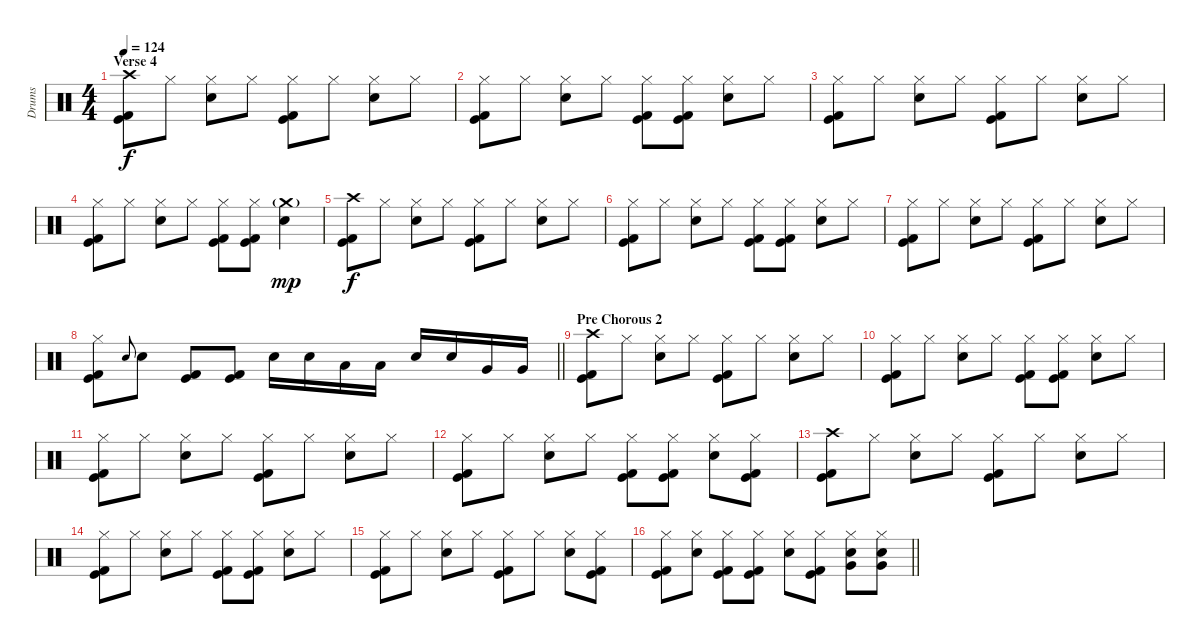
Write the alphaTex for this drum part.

\track ("Drums" "Drums") {instrument percussion}
\staff {score}
\articulation defaults
\ts (4 4)
\section ("" "Verse 4")
\tempo 124
\clef neutral
\ks c
("Crash high (hit)" "Kick (hit)" "Kick (hit) 2").8{dy f} "Hi-Hat (closed)".8 ("Hi-Hat (closed)" "Electric Snare (hit)").8 "Hi-Hat (closed)".8 ("Hi-Hat (closed)" "Kick (hit)" "Kick (hit) 2").8 "Hi-Hat (closed)".8 ("Hi-Hat (closed)" "Electric Snare (hit)").8 "Hi-Hat (closed)".8 |
("Hi-Hat (closed)" "Kick (hit)" "Kick (hit) 2").8 "Hi-Hat (closed)".8 ("Hi-Hat (closed)" "Electric Snare (hit)").8 "Hi-Hat (closed)".8 ("Hi-Hat (closed)" "Kick (hit)" "Kick (hit) 2").8 ("Hi-Hat (closed)" "Kick (hit)" "Kick (hit) 2").8 ("Hi-Hat (closed)" "Electric Snare (hit)").8 "Hi-Hat (closed)".8 |
("Hi-Hat (closed)" "Kick (hit)" "Kick (hit) 2").8 "Hi-Hat (closed)".8 ("Hi-Hat (closed)" "Electric Snare (hit)").8 "Hi-Hat (closed)".8 ("Hi-Hat (closed)" "Kick (hit)" "Kick (hit) 2").8 "Hi-Hat (closed)".8 ("Hi-Hat (closed)" "Electric Snare (hit)").8 "Hi-Hat (closed)".8 |
("Hi-Hat (closed)" "Kick (hit)" "Kick (hit) 2").8 "Hi-Hat (closed)".8 ("Hi-Hat (closed)" "Electric Snare (hit)").8 "Hi-Hat (closed)".8 ("Hi-Hat (closed)" "Kick (hit)" "Kick (hit) 2").8 ("Hi-Hat (closed)" "Kick (hit)" "Kick (hit) 2").8 ("Crash medium (hit)"{g} "Electric Snare (hit)").4{dy mp} |
("Crash high (hit)" "Kick (hit)" "Kick (hit) 2").8{dy f} "Hi-Hat (closed)".8 ("Hi-Hat (closed)" "Electric Snare (hit)").8 "Hi-Hat (closed)".8 ("Hi-Hat (closed)" "Kick (hit)" "Kick (hit) 2").8 "Hi-Hat (closed)".8 ("Hi-Hat (closed)" "Electric Snare (hit)").8 "Hi-Hat (closed)".8 |
("Hi-Hat (closed)" "Kick (hit)" "Kick (hit) 2").8 "Hi-Hat (closed)".8 ("Hi-Hat (closed)" "Electric Snare (hit)").8 "Hi-Hat (closed)".8 ("Hi-Hat (closed)" "Kick (hit)" "Kick (hit) 2").8 ("Hi-Hat (closed)" "Kick (hit)" "Kick (hit) 2").8 ("Hi-Hat (closed)" "Electric Snare (hit)").8 "Hi-Hat (closed)".8 |
("Hi-Hat (closed)" "Kick (hit)" "Kick (hit) 2").8 "Hi-Hat (closed)".8 ("Hi-Hat (closed)" "Electric Snare (hit)").8 "Hi-Hat (closed)".8 ("Hi-Hat (closed)" "Kick (hit)" "Kick (hit) 2").8 "Hi-Hat (closed)".8 ("Hi-Hat (closed)" "Electric Snare (hit)").8 "Hi-Hat (closed)".8 |
\barLineRight lightlight
("Hi-Hat (closed)" "Kick (hit)" "Kick (hit) 2").8 "Electric Snare (hit)".8{gr onbeat} "Electric Snare (hit)".8 ("Kick (hit)" "Kick (hit) 2").8 ("Kick (hit)" "Kick (hit) 2").8 "Electric Snare (hit)".16 "Electric Snare (hit)".16 "Low Tom (hit)".16 "Low Tom (hit)".16 "Electric Snare (hit)".16 "Electric Snare (hit)".16 "Very Low Tom (hit)".16 "Very Low Tom (hit)".16 |
\section ("" "Pre Chorous 2")
("Crash high (hit)" "Kick (hit)" "Kick (hit) 2").8 "Hi-Hat (closed)".8 ("Hi-Hat (closed)" "Electric Snare (hit)").8 "Hi-Hat (closed)".8 ("Hi-Hat (closed)" "Kick (hit)" "Kick (hit) 2").8 "Hi-Hat (closed)".8 ("Hi-Hat (closed)" "Electric Snare (hit)").8 "Hi-Hat (closed)".8 |
("Hi-Hat (closed)" "Kick (hit)" "Kick (hit) 2").8 "Hi-Hat (closed)".8 ("Hi-Hat (closed)" "Electric Snare (hit)").8 "Hi-Hat (closed)".8 ("Hi-Hat (closed)" "Kick (hit)" "Kick (hit) 2").8 ("Hi-Hat (closed)" "Kick (hit)" "Kick (hit) 2").8 ("Hi-Hat (closed)" "Electric Snare (hit)").8 "Hi-Hat (closed)".8 |
("Hi-Hat (closed)" "Kick (hit)" "Kick (hit) 2").8 "Hi-Hat (closed)".8 ("Hi-Hat (closed)" "Electric Snare (hit)").8 "Hi-Hat (closed)".8 ("Hi-Hat (closed)" "Kick (hit)" "Kick (hit) 2").8 "Hi-Hat (closed)".8 ("Hi-Hat (closed)" "Electric Snare (hit)").8 "Hi-Hat (closed)".8 |
("Hi-Hat (closed)" "Kick (hit)" "Kick (hit) 2").8 "Hi-Hat (closed)".8 ("Hi-Hat (closed)" "Electric Snare (hit)").8 "Hi-Hat (closed)".8 ("Hi-Hat (closed)" "Kick (hit)" "Kick (hit) 2").8 ("Hi-Hat (closed)" "Kick (hit)" "Kick (hit) 2").8 ("Hi-Hat (closed)" "Electric Snare (hit)").8 ("Hi-Hat (closed)" "Kick (hit)" "Kick (hit) 2").8 |
("Crash high (hit)" "Kick (hit)" "Kick (hit) 2").8 "Hi-Hat (closed)".8 ("Hi-Hat (closed)" "Electric Snare (hit)").8 "Hi-Hat (closed)".8 ("Hi-Hat (closed)" "Kick (hit)" "Kick (hit) 2").8 "Hi-Hat (closed)".8 ("Hi-Hat (closed)" "Electric Snare (hit)").8 "Hi-Hat (closed)".8 |
("Hi-Hat (closed)" "Kick (hit)" "Kick (hit) 2").8 "Hi-Hat (closed)".8 ("Hi-Hat (closed)" "Electric Snare (hit)").8 "Hi-Hat (closed)".8 ("Hi-Hat (closed)" "Kick (hit)" "Kick (hit) 2").8 ("Hi-Hat (closed)" "Kick (hit)" "Kick (hit) 2").8 ("Hi-Hat (closed)" "Electric Snare (hit)").8 "Hi-Hat (closed)".8 |
("Hi-Hat (closed)" "Kick (hit)" "Kick (hit) 2").8 "Hi-Hat (closed)".8 ("Hi-Hat (closed)" "Electric Snare (hit)").8 "Hi-Hat (closed)".8 ("Hi-Hat (closed)" "Kick (hit)" "Kick (hit) 2").8 "Hi-Hat (closed)".8 ("Hi-Hat (closed)" "Electric Snare (hit)").8 ("Hi-Hat (closed)" "Kick (hit)" "Kick (hit) 2").8 |
\barLineRight lightlight
("Hi-Hat (closed)" "Kick (hit)" "Kick (hit) 2").8 ("Hi-Hat (closed)" "Electric Snare (hit)").8 ("Hi-Hat (closed)" "Kick (hit)" "Kick (hit) 2").8 ("Hi-Hat (closed)" "Kick (hit)" "Kick (hit) 2").8 ("Hi-Hat (closed)" "Electric Snare (hit)").8 ("Hi-Hat (closed)" "Kick (hit)" "Kick (hit) 2").8 ("Hi-Hat (closed)" "Electric Snare (hit)" "Very Low Tom (hit)").8 ("Hi-Hat (closed)" "Electric Snare (hit)" "Very Low Tom (hit)").8
